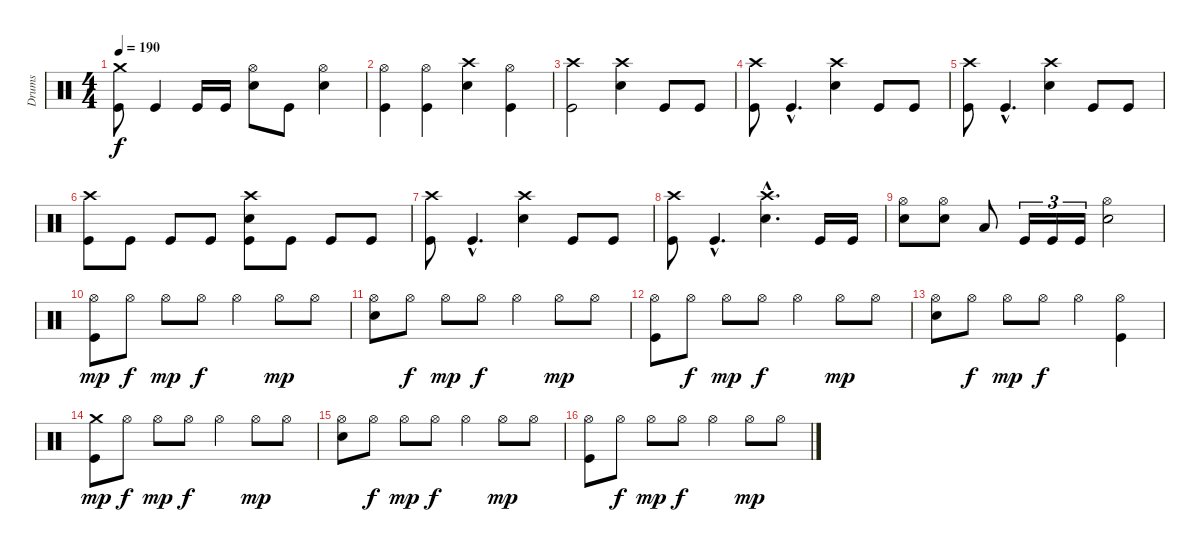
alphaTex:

\track ("Drums" "Drums") {instrument percussion}
\staff {score}
\articulation defaults
\ts (4 4)
\tempo 190
\clef neutral
\ks c
("Crash medium (hit)" "Kick (hit)").8{dy f} "Kick (hit)".4 "Kick (hit)".16 "Kick (hit)".16 ("Hi-Hat (open)" "Electric Snare (hit)").8 "Kick (hit)".8 ("Hi-Hat (open)" "Electric Snare (hit)").4 |
("Hi-Hat (open)" "Kick (hit)").4 ("Hi-Hat (open)" "Kick (hit)").4 ("Crash high (hit)" "Electric Snare (hit)").4 ("Hi-Hat (open)" "Kick (hit)").4 |
("Crash high (hit)" "Kick (hit)").2 ("Crash high (hit)" "Electric Snare (hit)").4 "Kick (hit)".8 "Kick (hit)".8 |
("Crash high (hit)" "Kick (hit)").8 "Kick (hit)"{hac}.4{d} ("Crash high (hit)" "Electric Snare (hit)").4 "Kick (hit)".8 "Kick (hit)".8 |
("Crash high (hit)" "Kick (hit)").8 "Kick (hit)"{hac}.4{d} ("Crash high (hit)" "Electric Snare (hit)").4 "Kick (hit)".8 "Kick (hit)".8 |
("Crash high (hit)" "Kick (hit)").8 "Kick (hit)".8 "Kick (hit)".8 "Kick (hit)".8 ("Crash high (hit)" "Electric Snare (hit)" "Kick (hit)").8 "Kick (hit)".8 "Kick (hit)".8 "Kick (hit)".8 |
("Crash high (hit)" "Kick (hit)").8 "Kick (hit)"{hac}.4{d} ("Crash high (hit)" "Electric Snare (hit)").4 "Kick (hit)".8 "Kick (hit)".8 |
("Crash high (hit)" "Kick (hit)").8 "Kick (hit)"{hac}.4{d} ("Crash high (hit)"{hac} "Electric Snare (hit)"{hac}).4{d} "Kick (hit)".16 "Kick (hit)".16 |
("Hi-Hat (open)" "Electric Snare (hit)").8 ("Hi-Hat (open)" "Electric Snare (hit)").8 "Low Tom (hit)".8 "Kick (hit)".16{tu (3 2)} "Kick (hit)".16{tu (3 2)} "Kick (hit)".16{tu (3 2)} ("Hi-Hat (open)" "Electric Snare (hit)").2 |
("Hi-Hat (open)" "Kick (hit)").8{dy mp} "Hi-Hat (open)".8{dy f} "Hi-Hat (open)".8{dy mp} "Hi-Hat (open)".8{dy f} "Hi-Hat (open)".4 "Hi-Hat (open)".8{dy mp} "Hi-Hat (open)".8 |
("Hi-Hat (open)" "Electric Snare (hit)").8 "Hi-Hat (open)".8{dy f} "Hi-Hat (open)".8{dy mp} "Hi-Hat (open)".8{dy f} "Hi-Hat (open)".4 "Hi-Hat (open)".8{dy mp} "Hi-Hat (open)".8 |
("Hi-Hat (open)" "Kick (hit)").8 "Hi-Hat (open)".8{dy f} "Hi-Hat (open)".8{dy mp} "Hi-Hat (open)".8{dy f} "Hi-Hat (open)".4 "Hi-Hat (open)".8{dy mp} "Hi-Hat (open)".8 |
("Hi-Hat (open)" "Electric Snare (hit)").8 "Hi-Hat (open)".8{dy f} "Hi-Hat (open)".8{dy mp} "Hi-Hat (open)".8{dy f} "Hi-Hat (open)".4 ("Hi-Hat (open)" "Kick (hit)").4 |
("Crash medium (hit)" "Kick (hit)").8{dy mp} "Hi-Hat (open)".8{dy f} "Hi-Hat (open)".8{dy mp} "Hi-Hat (open)".8{dy f} "Hi-Hat (open)".4 "Hi-Hat (open)".8{dy mp} "Hi-Hat (open)".8 |
("Hi-Hat (open)" "Electric Snare (hit)").8 "Hi-Hat (open)".8{dy f} "Hi-Hat (open)".8{dy mp} "Hi-Hat (open)".8{dy f} "Hi-Hat (open)".4 "Hi-Hat (open)".8{dy mp} "Hi-Hat (open)".8 |
("Hi-Hat (open)" "Kick (hit)").8 "Hi-Hat (open)".8{dy f} "Hi-Hat (open)".8{dy mp} "Hi-Hat (open)".8{dy f} "Hi-Hat (open)".4 "Hi-Hat (open)".8{dy mp} "Hi-Hat (open)".8
